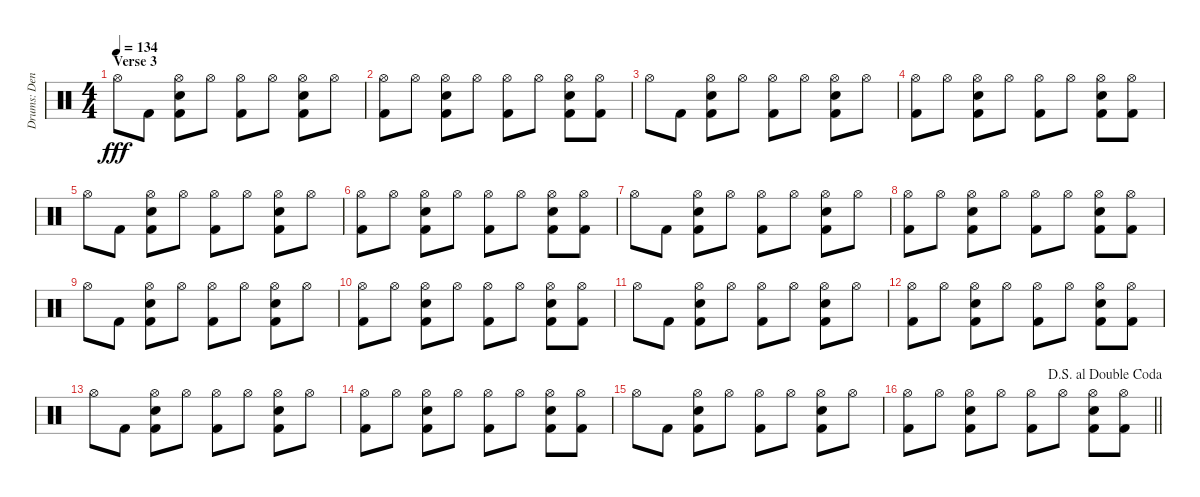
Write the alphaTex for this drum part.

\track ("Drums: Denny" "Drums: Den") {instrument percussion}
\staff {score}
\articulation defaults
\ts (4 4)
\section ("" "Verse 3")
\tempo 134
\clef neutral
\ks c "Hi-Hat (open)".8{dy fff} "Kick (hit) 2".8
("Hi-Hat (open)" "Snare (hit) 2" "Kick (hit) 2").8 "Hi-Hat (open)".8 ("Hi-Hat (open)" "Kick (hit) 2").8 "Hi-Hat (open)".8 ("Hi-Hat (open)" "Snare (hit) 2" "Kick (hit) 2").8 "Hi-Hat (open)".8 |
("Hi-Hat (open)" "Kick (hit) 2").8 "Hi-Hat (open)".8 ("Hi-Hat (open)" "Snare (hit) 2" "Kick (hit) 2").8 "Hi-Hat (open)".8 ("Hi-Hat (open)" "Kick (hit) 2").8 "Hi-Hat (open)".8 ("Hi-Hat (open)" "Snare (hit) 2" "Kick (hit) 2").8 ("Hi-Hat (open)" "Kick (hit) 2").8 |
"Hi-Hat (open)".8 "Kick (hit) 2".8 ("Hi-Hat (open)" "Snare (hit) 2" "Kick (hit) 2").8 "Hi-Hat (open)".8 ("Hi-Hat (open)" "Kick (hit) 2").8 "Hi-Hat (open)".8 ("Hi-Hat (open)" "Snare (hit) 2" "Kick (hit) 2").8 "Hi-Hat (open)".8 |
("Hi-Hat (open)" "Kick (hit) 2").8 "Hi-Hat (open)".8 ("Hi-Hat (open)" "Snare (hit) 2" "Kick (hit) 2").8 "Hi-Hat (open)".8 ("Hi-Hat (open)" "Kick (hit) 2").8 "Hi-Hat (open)".8 ("Hi-Hat (open)" "Snare (hit) 2" "Kick (hit) 2").8 ("Hi-Hat (open)" "Kick (hit) 2").8 |
"Hi-Hat (open)".8 "Kick (hit) 2".8 ("Hi-Hat (open)" "Snare (hit) 2" "Kick (hit) 2").8 "Hi-Hat (open)".8 ("Hi-Hat (open)" "Kick (hit) 2").8 "Hi-Hat (open)".8 ("Hi-Hat (open)" "Snare (hit) 2" "Kick (hit) 2").8 "Hi-Hat (open)".8 |
("Hi-Hat (open)" "Kick (hit) 2").8 "Hi-Hat (open)".8 ("Hi-Hat (open)" "Snare (hit) 2" "Kick (hit) 2").8 "Hi-Hat (open)".8 ("Hi-Hat (open)" "Kick (hit) 2").8 "Hi-Hat (open)".8 ("Hi-Hat (open)" "Snare (hit) 2" "Kick (hit) 2").8 ("Hi-Hat (open)" "Kick (hit) 2").8 |
"Hi-Hat (open)".8 "Kick (hit) 2".8 ("Hi-Hat (open)" "Snare (hit) 2" "Kick (hit) 2").8 "Hi-Hat (open)".8 ("Hi-Hat (open)" "Kick (hit) 2").8 "Hi-Hat (open)".8 ("Hi-Hat (open)" "Snare (hit) 2" "Kick (hit) 2").8 "Hi-Hat (open)".8 |
("Hi-Hat (open)" "Kick (hit) 2").8 "Hi-Hat (open)".8 ("Hi-Hat (open)" "Snare (hit) 2" "Kick (hit) 2").8 "Hi-Hat (open)".8 ("Hi-Hat (open)" "Kick (hit) 2").8 "Hi-Hat (open)".8 ("Hi-Hat (open)" "Snare (hit) 2" "Kick (hit) 2").8 ("Hi-Hat (open)" "Kick (hit) 2").8 |
"Hi-Hat (open)".8 "Kick (hit) 2".8 ("Hi-Hat (open)" "Snare (hit) 2" "Kick (hit) 2").8 "Hi-Hat (open)".8 ("Hi-Hat (open)" "Kick (hit) 2").8 "Hi-Hat (open)".8 ("Hi-Hat (open)" "Snare (hit) 2" "Kick (hit) 2").8 "Hi-Hat (open)".8 |
("Hi-Hat (open)" "Kick (hit) 2").8 "Hi-Hat (open)".8 ("Hi-Hat (open)" "Snare (hit) 2" "Kick (hit) 2").8 "Hi-Hat (open)".8 ("Hi-Hat (open)" "Kick (hit) 2").8 "Hi-Hat (open)".8 ("Hi-Hat (open)" "Snare (hit) 2" "Kick (hit) 2").8 ("Hi-Hat (open)" "Kick (hit) 2").8 |
"Hi-Hat (open)".8 "Kick (hit) 2".8 ("Hi-Hat (open)" "Snare (hit) 2" "Kick (hit) 2").8 "Hi-Hat (open)".8 ("Hi-Hat (open)" "Kick (hit) 2").8 "Hi-Hat (open)".8 ("Hi-Hat (open)" "Snare (hit) 2" "Kick (hit) 2").8 "Hi-Hat (open)".8 |
("Hi-Hat (open)" "Kick (hit) 2").8 "Hi-Hat (open)".8 ("Hi-Hat (open)" "Snare (hit) 2" "Kick (hit) 2").8 "Hi-Hat (open)".8 ("Hi-Hat (open)" "Kick (hit) 2").8 "Hi-Hat (open)".8 ("Hi-Hat (open)" "Snare (hit) 2" "Kick (hit) 2").8 ("Hi-Hat (open)" "Kick (hit) 2").8 |
"Hi-Hat (open)".8 "Kick (hit) 2".8 ("Hi-Hat (open)" "Snare (hit) 2" "Kick (hit) 2").8 "Hi-Hat (open)".8 ("Hi-Hat (open)" "Kick (hit) 2").8 "Hi-Hat (open)".8 ("Hi-Hat (open)" "Snare (hit) 2" "Kick (hit) 2").8 "Hi-Hat (open)".8 |
("Hi-Hat (open)" "Kick (hit) 2").8 "Hi-Hat (open)".8 ("Hi-Hat (open)" "Snare (hit) 2" "Kick (hit) 2").8 "Hi-Hat (open)".8 ("Hi-Hat (open)" "Kick (hit) 2").8 "Hi-Hat (open)".8 ("Hi-Hat (open)" "Snare (hit) 2" "Kick (hit) 2").8 ("Hi-Hat (open)" "Kick (hit) 2").8 |
"Hi-Hat (open)".8 "Kick (hit) 2".8 ("Hi-Hat (open)" "Snare (hit) 2" "Kick (hit) 2").8 "Hi-Hat (open)".8 ("Hi-Hat (open)" "Kick (hit) 2").8 "Hi-Hat (open)".8 ("Hi-Hat (open)" "Snare (hit) 2" "Kick (hit) 2").8 "Hi-Hat (open)".8 |
\jump dalsegnoaldoublecoda
\barLineRight lightlight
("Hi-Hat (open)" "Kick (hit) 2").8 "Hi-Hat (open)".8 ("Hi-Hat (open)" "Snare (hit) 2" "Kick (hit) 2").8 "Hi-Hat (open)".8 ("Hi-Hat (open)" "Kick (hit) 2").8 "Hi-Hat (open)".8 ("Hi-Hat (open)" "Snare (hit) 2" "Kick (hit) 2").8 ("Hi-Hat (open)" "Kick (hit) 2").8
